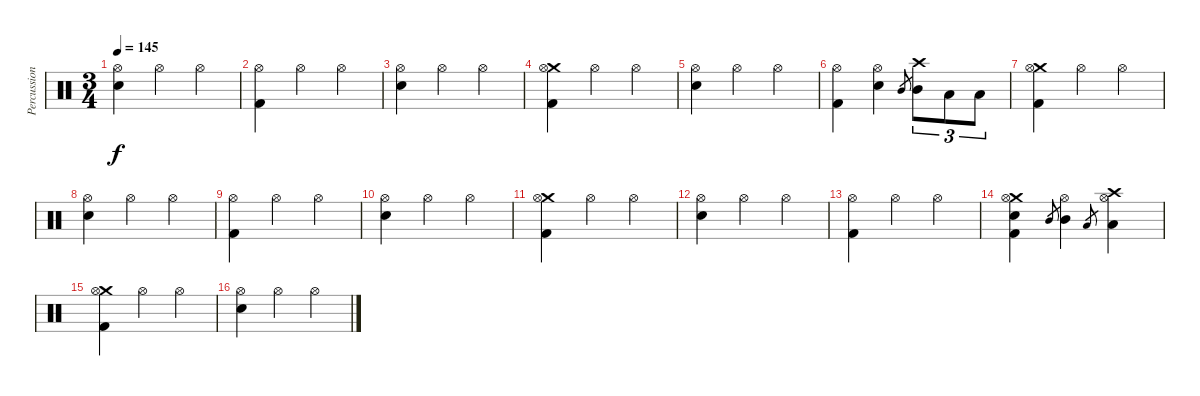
\track ("Percussion" "Percussion") {instrument percussion}
\staff {score}
\articulation defaults
\ts (3 4)
\tempo 145
\clef neutral
\ks c
("Hi-Hat (open)" "Electric Snare (hit)").4{dy f} "Hi-Hat (open)".4 "Hi-Hat (open)".4 |
("Hi-Hat (open)" "Kick (hit) 2").4 "Hi-Hat (open)".4 "Hi-Hat (open)".4 |
("Hi-Hat (open)" "Electric Snare (hit)").4 "Hi-Hat (open)".4 "Hi-Hat (open)".4 |
("Crash medium (hit)" "Hi-Hat (open)" "Kick (hit) 2").4 "Hi-Hat (open)".4 "Hi-Hat (open)".4 |
("Hi-Hat (open)" "Electric Snare (hit)").4 "Hi-Hat (open)".4 "Hi-Hat (open)".4 |
("Hi-Hat (open)" "Kick (hit) 2").4 ("Hi-Hat (open)" "Electric Snare (hit)").4 "Mid Tom (hit)".8{gr} ("Crash high (hit)" "Mid Tom (hit)").8{tu (3 2)} "Low Tom (hit)".8{tu (3 2)} "Low Floor Tom (hit)".8{tu (3 2)} |
("Crash medium (hit)" "Hi-Hat (open)" "Kick (hit) 2").4 "Hi-Hat (open)".4 "Hi-Hat (open)".4 |
("Hi-Hat (open)" "Electric Snare (hit)").4 "Hi-Hat (open)".4 "Hi-Hat (open)".4 |
("Hi-Hat (open)" "Kick (hit) 2").4 "Hi-Hat (open)".4 "Hi-Hat (open)".4 |
("Hi-Hat (open)" "Electric Snare (hit)").4 "Hi-Hat (open)".4 "Hi-Hat (open)".4 |
("Crash medium (hit)" "Hi-Hat (open)" "Kick (hit) 2").4 "Hi-Hat (open)".4 "Hi-Hat (open)".4 |
("Hi-Hat (open)" "Electric Snare (hit)").4 "Hi-Hat (open)".4 "Hi-Hat (open)".4 |
("Hi-Hat (open)" "Kick (hit) 2").4 "Hi-Hat (open)".4 "Hi-Hat (open)".4 |
("Crash medium (hit)" "Hi-Hat (open)" "Electric Snare (hit)" "Kick (hit) 2").4 "Mid Tom (hit)".8{gr} ("Hi-Hat (open)" "Mid Tom (hit)").4 "Low Tom (hit)".8{gr} ("Crash high (hit)" "Hi-Hat (open)" "Low Tom (hit)").4 |
("Crash medium (hit)" "Hi-Hat (open)" "Kick (hit) 2").4 "Hi-Hat (open)".4 "Hi-Hat (open)".4 |
("Hi-Hat (open)" "Electric Snare (hit)").4 "Hi-Hat (open)".4 "Hi-Hat (open)".4
